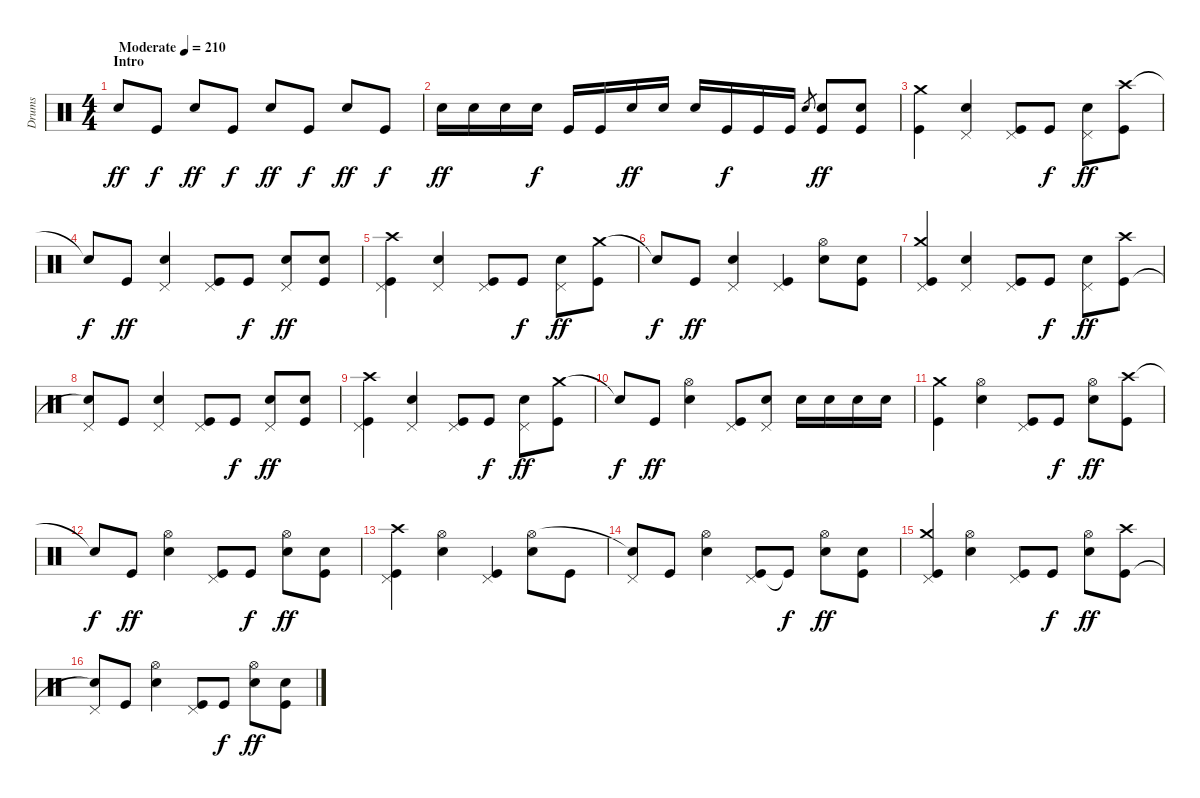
\track ("Drums" "Drums") {instrument percussion}
\staff {score}
\articulation defaults
\ts (4 4)
\section ("" "Intro")
\tempo (210 "Moderate")
\clef neutral
\ks c "Electric Snare (hit)".8{dy ff} "Kick (hit)".8{dy f} "Electric Snare (hit)".8{dy ff} "Kick (hit)".8{dy f} "Electric Snare (hit)".8{dy ff} "Kick (hit)".8{dy f} "Electric Snare (hit)".8{dy ff} "Kick (hit)".8{dy f}
|
"Electric Snare (hit)".16{dy ff} "Electric Snare (hit)".16 "Electric Snare (hit)".16 "Electric Snare (hit)".16{dy f} "Kick (hit)".16 "Kick (hit)".16 "Electric Snare (hit)".16{dy ff} "Electric Snare (hit)".16 "Electric Snare (hit)".16 "Kick (hit)".16{dy f} "Kick (hit)".16 "Kick (hit)".16 "Electric Snare (hit)".8{gr} ("Electric Snare (hit)" "Kick (hit)").8{dy ff} ("Electric Snare (hit)" "Kick (hit)").8 |
("Crash medium (hit)" "Kick (hit)").4 ("Electric Snare (hit)" "Pedal Hi-Hat (hit)").4 ("Pedal Hi-Hat (hit)" "Kick (hit)").8 "Kick (hit)".8{dy f} ("Electric Snare (hit)" "Pedal Hi-Hat (hit)").8{dy ff} ("Crash high (hit)" "Kick (hit)").8 |
"Snare (hit)"{t}.8{dy f} "Kick (hit)".8{dy ff} ("Electric Snare (hit)" "Pedal Hi-Hat (hit)").4 ("Pedal Hi-Hat (hit)" "Kick (hit)").8 "Kick (hit)".8{dy f} ("Electric Snare (hit)" "Pedal Hi-Hat (hit)").8{dy ff} ("Electric Snare (hit)" "Kick (hit)").8 |
("Crash high (hit)" "Pedal Hi-Hat (hit)" "Kick (hit)").4 ("Electric Snare (hit)" "Pedal Hi-Hat (hit)").4 ("Pedal Hi-Hat (hit)" "Kick (hit)").8 "Kick (hit)".8{dy f} ("Electric Snare (hit)" "Pedal Hi-Hat (hit)").8{dy ff} ("Crash medium (hit)" "Kick (hit)").8 |
"Snare (hit)"{t}.8{dy f} "Kick (hit)".8{dy ff} ("Electric Snare (hit)" "Pedal Hi-Hat (hit)").4 ("Pedal Hi-Hat (hit)" "Kick (hit)").4 ("Electric Snare (hit)" "Hi-Hat (open)").8 ("Electric Snare (hit)" "Kick (hit)").8 |
("Crash medium (hit)" "Pedal Hi-Hat (hit)" "Kick (hit)").4 ("Electric Snare (hit)" "Pedal Hi-Hat (hit)").4 ("Pedal Hi-Hat (hit)" "Kick (hit)").8 "Kick (hit)".8{dy f} ("Electric Snare (hit)" "Pedal Hi-Hat (hit)").8{dy ff} ("Crash high (hit)" "Kick (hit)").8 |
("Pedal Hi-Hat (hit)" "Snare (hit)"{t}).8 "Kick (hit)".8 ("Electric Snare (hit)" "Pedal Hi-Hat (hit)").4 ("Pedal Hi-Hat (hit)" "Kick (hit)").8 "Kick (hit)".8{dy f} ("Electric Snare (hit)" "Pedal Hi-Hat (hit)").8{dy ff} ("Electric Snare (hit)" "Kick (hit)").8 |
("Crash high (hit)" "Pedal Hi-Hat (hit)" "Kick (hit)").4 ("Electric Snare (hit)" "Pedal Hi-Hat (hit)").4 ("Pedal Hi-Hat (hit)" "Kick (hit)").8 "Kick (hit)".8{dy f} ("Electric Snare (hit)" "Pedal Hi-Hat (hit)").8{dy ff} ("Crash medium (hit)" "Kick (hit)").8 |
"Snare (hit)"{t}.8{dy f} "Kick (hit)".8{dy ff} ("Electric Snare (hit)" "Hi-Hat (open)").4 ("Pedal Hi-Hat (hit)" "Kick (hit)").8 ("Electric Snare (hit)" "Pedal Hi-Hat (hit)").8 "Electric Snare (hit)".16 "Electric Snare (hit)".16 "Electric Snare (hit)".16 "Electric Snare (hit)".16 |
("Crash medium (hit)" "Kick (hit)").4 ("Electric Snare (hit)" "Hi-Hat (open)").4 ("Pedal Hi-Hat (hit)" "Kick (hit)").8 "Kick (hit)".8{dy f} ("Electric Snare (hit)" "Hi-Hat (open)").8{dy ff} ("Crash high (hit)" "Kick (hit)").8 |
"Snare (hit)"{t}.8{dy f} "Kick (hit)".8{dy ff} ("Electric Snare (hit)" "Hi-Hat (open)").4 ("Pedal Hi-Hat (hit)" "Kick (hit)").8 "Kick (hit)".8{dy f} ("Electric Snare (hit)" "Hi-Hat (open)").8{dy ff} ("Electric Snare (hit)" "Kick (hit)").8 |
("Crash high (hit)" "Pedal Hi-Hat (hit)" "Kick (hit)").4 ("Electric Snare (hit)" "Hi-Hat (open)").4 ("Pedal Hi-Hat (hit)" "Kick (hit)").4 ("Electric Snare (hit)" "Hi-Hat (open)").8 "Kick (hit)".8 |
("Pedal Hi-Hat (hit)" "Snare (hit)"{t}).8 "Kick (hit)".8 ("Electric Snare (hit)" "Hi-Hat (open)").4 ("Pedal Hi-Hat (hit)" "Kick (hit)").8 "Kick (hit)"{t}.8{dy f} ("Electric Snare (hit)" "Hi-Hat (open)").8{dy ff} ("Electric Snare (hit)" "Kick (hit)").8 |
("Crash medium (hit)" "Pedal Hi-Hat (hit)" "Kick (hit)").4 ("Electric Snare (hit)" "Hi-Hat (open)").4 ("Pedal Hi-Hat (hit)" "Kick (hit)").8 "Kick (hit)".8{dy f} ("Electric Snare (hit)" "Hi-Hat (open)").8{dy ff} ("Crash high (hit)" "Kick (hit)").8 |
("Pedal Hi-Hat (hit)" "Snare (hit)"{t}).8 "Kick (hit)".8 ("Electric Snare (hit)" "Hi-Hat (open)").4 ("Pedal Hi-Hat (hit)" "Kick (hit)").8 "Kick (hit)".8{dy f} ("Electric Snare (hit)" "Hi-Hat (open)").8{dy ff} ("Electric Snare (hit)" "Kick (hit)").8
